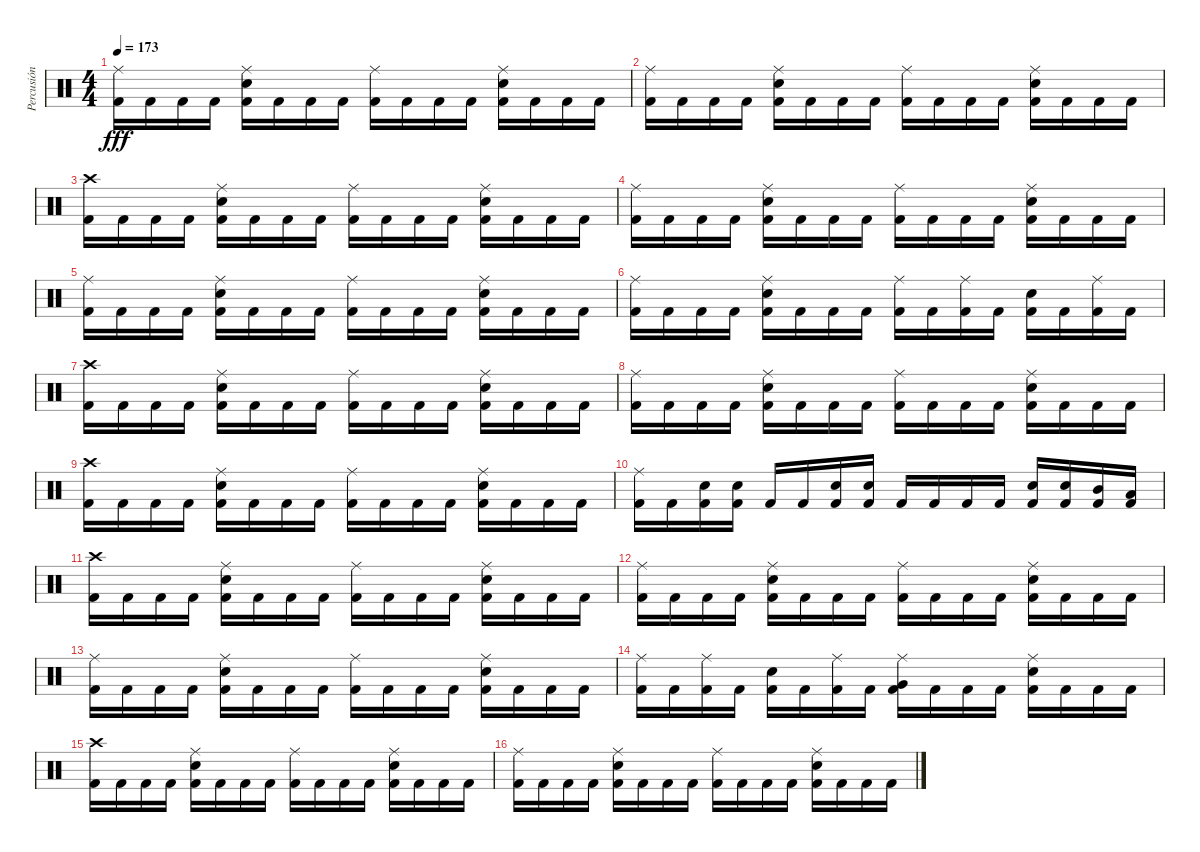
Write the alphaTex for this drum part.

\track ("Percusión" "Percusión") {instrument percussion}
\staff {score}
\articulation defaults
\ts (4 4)
\tempo 173
\clef neutral
\ks c
("Ride (middle)" "Kick (hit) 2").16{dy fff} "Kick (hit) 2".16 "Kick (hit) 2".16 "Kick (hit) 2".16 ("Ride (middle)" "Electric Snare (hit)" "Kick (hit) 2").16 "Kick (hit) 2".16 "Kick (hit) 2".16 "Kick (hit) 2".16 ("Ride (middle)" "Kick (hit) 2").16 "Kick (hit) 2".16 "Kick (hit) 2".16 "Kick (hit) 2".16 ("Ride (middle)" "Electric Snare (hit)" "Kick (hit) 2").16 "Kick (hit) 2".16 "Kick (hit) 2".16 "Kick (hit) 2".16 |
("Ride (middle)" "Kick (hit) 2").16 "Kick (hit) 2".16 "Kick (hit) 2".16 "Kick (hit) 2".16 ("Ride (middle)" "Electric Snare (hit)" "Kick (hit) 2").16 "Kick (hit) 2".16 "Kick (hit) 2".16 "Kick (hit) 2".16 ("Ride (middle)" "Kick (hit) 2").16 "Kick (hit) 2".16 "Kick (hit) 2".16 "Kick (hit) 2".16 ("Ride (middle)" "Electric Snare (hit)" "Kick (hit) 2").16 "Kick (hit) 2".16 "Kick (hit) 2".16 "Kick (hit) 2".16 |
("Crash high (hit)" "Kick (hit) 2").16 "Kick (hit) 2".16 "Kick (hit) 2".16 "Kick (hit) 2".16 ("Ride (middle)" "Electric Snare (hit)" "Kick (hit) 2").16 "Kick (hit) 2".16 "Kick (hit) 2".16 "Kick (hit) 2".16 ("Ride (middle)" "Kick (hit) 2").16 "Kick (hit) 2".16 "Kick (hit) 2".16 "Kick (hit) 2".16 ("Ride (middle)" "Electric Snare (hit)" "Kick (hit) 2").16 "Kick (hit) 2".16 "Kick (hit) 2".16 "Kick (hit) 2".16 |
("Ride (middle)" "Kick (hit) 2").16 "Kick (hit) 2".16 "Kick (hit) 2".16 "Kick (hit) 2".16 ("Ride (middle)" "Electric Snare (hit)" "Kick (hit) 2").16 "Kick (hit) 2".16 "Kick (hit) 2".16 "Kick (hit) 2".16 ("Ride (middle)" "Kick (hit) 2").16 "Kick (hit) 2".16 "Kick (hit) 2".16 "Kick (hit) 2".16 ("Ride (middle)" "Electric Snare (hit)" "Kick (hit) 2").16 "Kick (hit) 2".16 "Kick (hit) 2".16 "Kick (hit) 2".16 |
("Ride (middle)" "Kick (hit) 2").16 "Kick (hit) 2".16 "Kick (hit) 2".16 "Kick (hit) 2".16 ("Ride (middle)" "Electric Snare (hit)" "Kick (hit) 2").16 "Kick (hit) 2".16 "Kick (hit) 2".16 "Kick (hit) 2".16 ("Ride (middle)" "Kick (hit) 2").16 "Kick (hit) 2".16 "Kick (hit) 2".16 "Kick (hit) 2".16 ("Ride (middle)" "Electric Snare (hit)" "Kick (hit) 2").16 "Kick (hit) 2".16 "Kick (hit) 2".16 "Kick (hit) 2".16 |
("Ride (middle)" "Kick (hit) 2").16 "Kick (hit) 2".16 "Kick (hit) 2".16 "Kick (hit) 2".16 ("Ride (middle)" "Electric Snare (hit)" "Kick (hit) 2").16 "Kick (hit) 2".16 "Kick (hit) 2".16 "Kick (hit) 2".16 ("Ride (middle)" "Kick (hit) 2").16 "Kick (hit) 2".16 ("Ride (middle)" "Kick (hit) 2").16 "Kick (hit) 2".16 ("Electric Snare (hit)" "Kick (hit) 2").16 "Kick (hit) 2".16 ("Ride (middle)" "Kick (hit) 2").16 "Kick (hit) 2".16 |
("Crash high (hit)" "Kick (hit) 2").16 "Kick (hit) 2".16 "Kick (hit) 2".16 "Kick (hit) 2".16 ("Ride (middle)" "Electric Snare (hit)" "Kick (hit) 2").16 "Kick (hit) 2".16 "Kick (hit) 2".16 "Kick (hit) 2".16 ("Ride (middle)" "Kick (hit) 2").16 "Kick (hit) 2".16 "Kick (hit) 2".16 "Kick (hit) 2".16 ("Ride (middle)" "Electric Snare (hit)" "Kick (hit) 2").16 "Kick (hit) 2".16 "Kick (hit) 2".16 "Kick (hit) 2".16 |
("Ride (middle)" "Kick (hit) 2").16 "Kick (hit) 2".16 "Kick (hit) 2".16 "Kick (hit) 2".16 ("Ride (middle)" "Electric Snare (hit)" "Kick (hit) 2").16 "Kick (hit) 2".16 "Kick (hit) 2".16 "Kick (hit) 2".16 ("Ride (middle)" "Kick (hit) 2").16 "Kick (hit) 2".16 "Kick (hit) 2".16 "Kick (hit) 2".16 ("Ride (middle)" "Electric Snare (hit)" "Kick (hit) 2").16 "Kick (hit) 2".16 "Kick (hit) 2".16 "Kick (hit) 2".16 |
("Crash high (hit)" "Kick (hit) 2").16 "Kick (hit) 2".16 "Kick (hit) 2".16 "Kick (hit) 2".16 ("Ride (middle)" "Electric Snare (hit)" "Kick (hit) 2").16 "Kick (hit) 2".16 "Kick (hit) 2".16 "Kick (hit) 2".16 ("Ride (middle)" "Kick (hit) 2").16 "Kick (hit) 2".16 "Kick (hit) 2".16 "Kick (hit) 2".16 ("Ride (middle)" "Electric Snare (hit)" "Kick (hit) 2").16 "Kick (hit) 2".16 "Kick (hit) 2".16 "Kick (hit) 2".16 |
("Ride (middle)" "Kick (hit) 2").16 "Kick (hit) 2".16 ("Electric Snare (hit)" "Kick (hit) 2").16 ("Electric Snare (hit)" "Kick (hit) 2").16 "Kick (hit) 2".16 "Kick (hit) 2".16 ("Electric Snare (hit)" "Kick (hit) 2").16 ("Electric Snare (hit)" "Kick (hit) 2").16 "Kick (hit) 2".16 "Kick (hit) 2".16 "Kick (hit) 2".16 "Kick (hit) 2".16 ("Electric Snare (hit)" "Kick (hit) 2").16 ("Electric Snare (hit)" "Kick (hit) 2").16 ("Mid Tom (hit)" "Kick (hit) 2").16 ("Low Tom (hit)" "Kick (hit) 2").16 |
("Crash high (hit)" "Kick (hit) 2").16 "Kick (hit) 2".16 "Kick (hit) 2".16 "Kick (hit) 2".16 ("Ride (middle)" "Electric Snare (hit)" "Kick (hit) 2").16 "Kick (hit) 2".16 "Kick (hit) 2".16 "Kick (hit) 2".16 ("Ride (middle)" "Kick (hit) 2").16 "Kick (hit) 2".16 "Kick (hit) 2".16 "Kick (hit) 2".16 ("Ride (middle)" "Electric Snare (hit)" "Kick (hit) 2").16 "Kick (hit) 2".16 "Kick (hit) 2".16 "Kick (hit) 2".16 |
("Ride (middle)" "Kick (hit) 2").16 "Kick (hit) 2".16 "Kick (hit) 2".16 "Kick (hit) 2".16 ("Ride (middle)" "Electric Snare (hit)" "Kick (hit) 2").16 "Kick (hit) 2".16 "Kick (hit) 2".16 "Kick (hit) 2".16 ("Ride (middle)" "Kick (hit) 2").16 "Kick (hit) 2".16 "Kick (hit) 2".16 "Kick (hit) 2".16 ("Ride (middle)" "Electric Snare (hit)" "Kick (hit) 2").16 "Kick (hit) 2".16 "Kick (hit) 2".16 "Kick (hit) 2".16 |
("Ride (middle)" "Kick (hit) 2").16 "Kick (hit) 2".16 "Kick (hit) 2".16 "Kick (hit) 2".16 ("Ride (middle)" "Electric Snare (hit)" "Kick (hit) 2").16 "Kick (hit) 2".16 "Kick (hit) 2".16 "Kick (hit) 2".16 ("Ride (middle)" "Kick (hit) 2").16 "Kick (hit) 2".16 "Kick (hit) 2".16 "Kick (hit) 2".16 ("Ride (middle)" "Electric Snare (hit)" "Kick (hit) 2").16 "Kick (hit) 2".16 "Kick (hit) 2".16 "Kick (hit) 2".16 |
("Ride (middle)" "Kick (hit) 2").16 "Kick (hit) 2".16 ("Ride (middle)" "Kick (hit) 2").16 "Kick (hit) 2".16 ("Electric Snare (hit)" "Kick (hit) 2").16 "Kick (hit) 2".16 ("Ride (middle)" "Kick (hit) 2").16 "Kick (hit) 2".16 ("Ride (middle)" "Very Low Tom (hit)" "Kick (hit) 2").16 "Kick (hit) 2".16 "Kick (hit) 2".16 "Kick (hit) 2".16 ("Ride (middle)" "Electric Snare (hit)" "Kick (hit) 2").16 "Kick (hit) 2".16 "Kick (hit) 2".16 "Kick (hit) 2".16 |
("Crash high (hit)" "Kick (hit) 2").16 "Kick (hit) 2".16 "Kick (hit) 2".16 "Kick (hit) 2".16 ("Ride (middle)" "Electric Snare (hit)" "Kick (hit) 2").16 "Kick (hit) 2".16 "Kick (hit) 2".16 "Kick (hit) 2".16 ("Ride (middle)" "Kick (hit) 2").16 "Kick (hit) 2".16 "Kick (hit) 2".16 "Kick (hit) 2".16 ("Ride (middle)" "Electric Snare (hit)" "Kick (hit) 2").16 "Kick (hit) 2".16 "Kick (hit) 2".16 "Kick (hit) 2".16 |
("Ride (middle)" "Kick (hit) 2").16 "Kick (hit) 2".16 "Kick (hit) 2".16 "Kick (hit) 2".16 ("Ride (middle)" "Electric Snare (hit)" "Kick (hit) 2").16 "Kick (hit) 2".16 "Kick (hit) 2".16 "Kick (hit) 2".16 ("Ride (middle)" "Kick (hit) 2").16 "Kick (hit) 2".16 "Kick (hit) 2".16 "Kick (hit) 2".16 ("Ride (middle)" "Electric Snare (hit)" "Kick (hit) 2").16 "Kick (hit) 2".16 "Kick (hit) 2".16 "Kick (hit) 2".16
